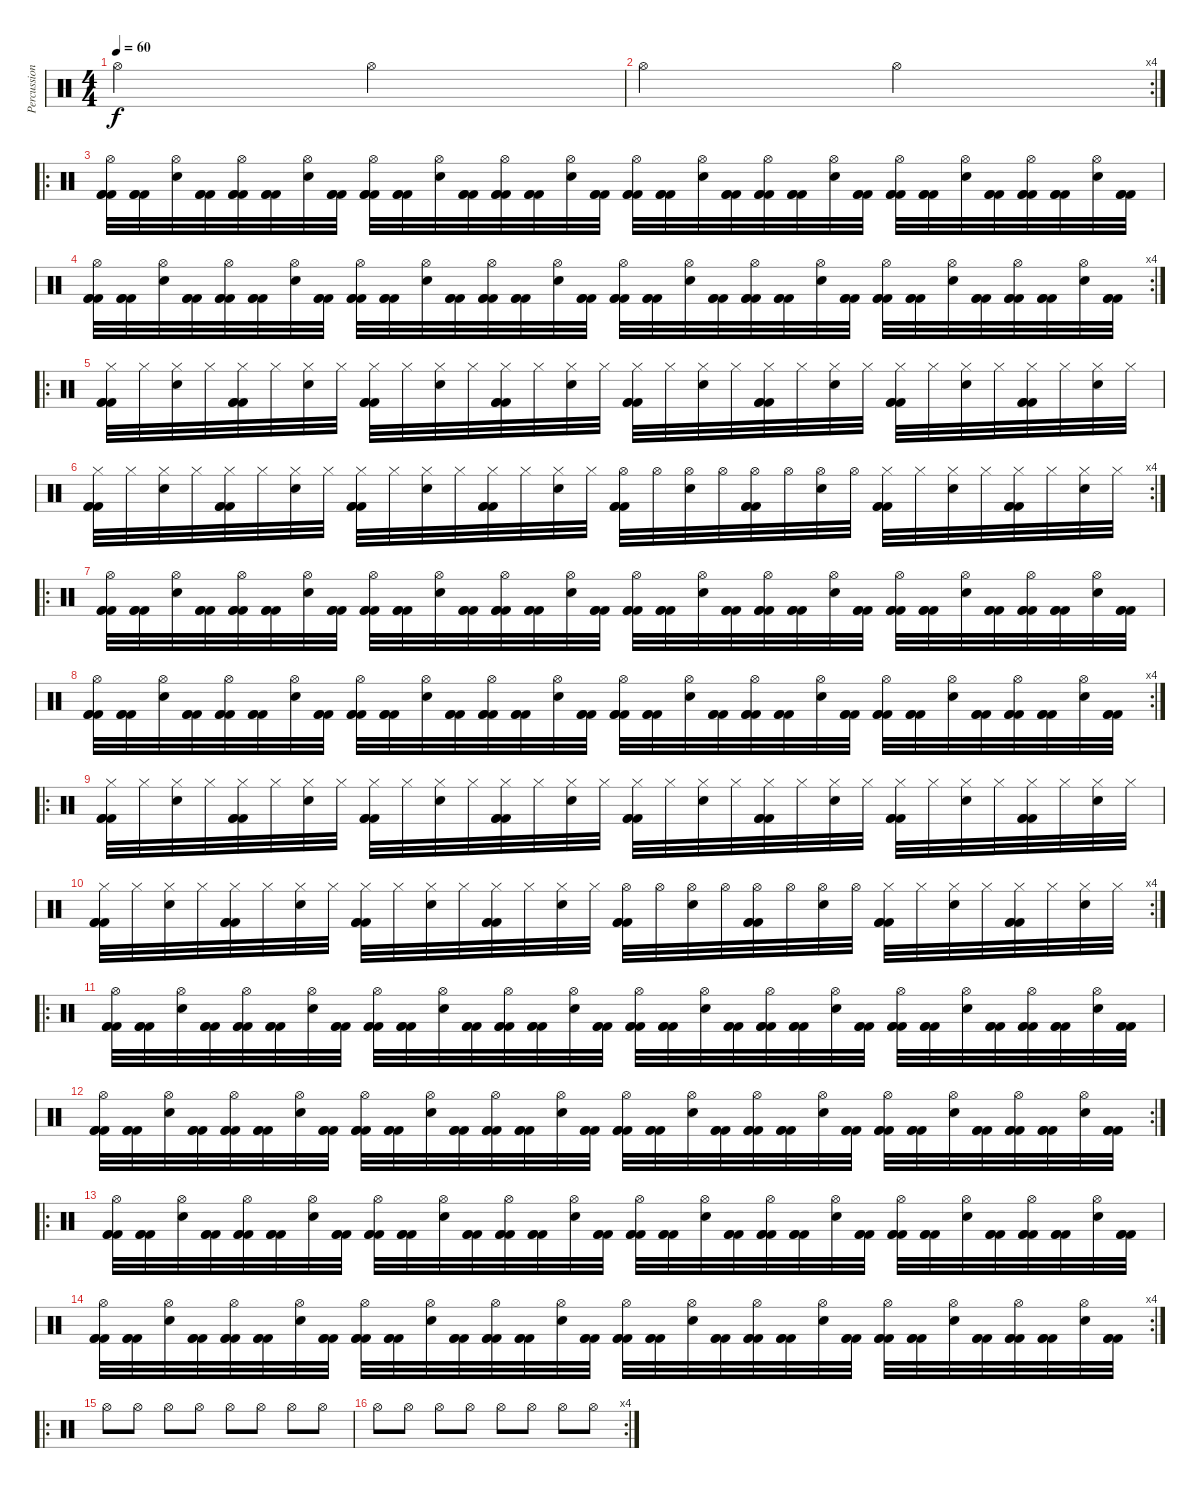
\track ("Percussion" "Percussion") {instrument percussion}
\staff {score}
\articulation defaults
\ts (4 4)
\tempo 60
\clef neutral
\ks c "Hi-Hat (open)".2{dy f} "Hi-Hat (open)".2
|
\rc 4 "Hi-Hat (open)".2 "Hi-Hat (open)".2
|
\ro
("Kick (hit) 2" "Kick (hit) 2" "Kick (hit) 2" "Hi-Hat (open)").32 ("Kick (hit) 2" "Kick (hit) 2" "Kick (hit) 2").32 ("Snare (hit) 2" "Hi-Hat (open)").32 ("Kick (hit) 2" "Kick (hit) 2" "Kick (hit) 2").32 ("Kick (hit) 2" "Kick (hit) 2" "Kick (hit) 2" "Hi-Hat (open)").32 ("Kick (hit) 2" "Kick (hit) 2" "Kick (hit) 2").32 ("Snare (hit) 2" "Hi-Hat (open)").32 ("Kick (hit) 2" "Kick (hit) 2" "Kick (hit) 2").32 ("Kick (hit) 2" "Kick (hit) 2" "Kick (hit) 2" "Hi-Hat (open)").32 ("Kick (hit) 2" "Kick (hit) 2" "Kick (hit) 2").32 ("Snare (hit) 2" "Hi-Hat (open)").32 ("Kick (hit) 2" "Kick (hit) 2" "Kick (hit) 2").32 ("Kick (hit) 2" "Kick (hit) 2" "Kick (hit) 2" "Hi-Hat (open)").32 ("Kick (hit) 2" "Kick (hit) 2" "Kick (hit) 2").32 ("Snare (hit) 2" "Hi-Hat (open)").32 ("Kick (hit) 2" "Kick (hit) 2" "Kick (hit) 2").32 ("Kick (hit) 2" "Kick (hit) 2" "Kick (hit) 2" "Hi-Hat (open)").32 ("Kick (hit) 2" "Kick (hit) 2" "Kick (hit) 2").32 ("Snare (hit) 2" "Hi-Hat (open)").32 ("Kick (hit) 2" "Kick (hit) 2" "Kick (hit) 2").32 ("Kick (hit) 2" "Kick (hit) 2" "Kick (hit) 2" "Hi-Hat (open)").32 ("Kick (hit) 2" "Kick (hit) 2" "Kick (hit) 2").32 ("Snare (hit) 2" "Hi-Hat (open)").32 ("Kick (hit) 2" "Kick (hit) 2" "Kick (hit) 2").32 ("Kick (hit) 2" "Kick (hit) 2" "Kick (hit) 2" "Hi-Hat (open)").32 ("Kick (hit) 2" "Kick (hit) 2" "Kick (hit) 2").32 ("Snare (hit) 2" "Hi-Hat (open)").32 ("Kick (hit) 2" "Kick (hit) 2" "Kick (hit) 2").32 ("Kick (hit) 2" "Kick (hit) 2" "Kick (hit) 2" "Hi-Hat (open)").32 ("Kick (hit) 2" "Kick (hit) 2" "Kick (hit) 2").32 ("Snare (hit) 2" "Hi-Hat (open)").32 ("Kick (hit) 2" "Kick (hit) 2" "Kick (hit) 2").32 |
\rc 4
("Kick (hit) 2" "Kick (hit) 2" "Kick (hit) 2" "Hi-Hat (open)").32 ("Kick (hit) 2" "Kick (hit) 2" "Kick (hit) 2").32 ("Snare (hit) 2" "Hi-Hat (open)").32 ("Kick (hit) 2" "Kick (hit) 2" "Kick (hit) 2").32 ("Kick (hit) 2" "Kick (hit) 2" "Kick (hit) 2" "Hi-Hat (open)").32 ("Kick (hit) 2" "Kick (hit) 2" "Kick (hit) 2").32 ("Snare (hit) 2" "Hi-Hat (open)").32 ("Kick (hit) 2" "Kick (hit) 2" "Kick (hit) 2").32 ("Kick (hit) 2" "Kick (hit) 2" "Kick (hit) 2" "Hi-Hat (open)").32 ("Kick (hit) 2" "Kick (hit) 2" "Kick (hit) 2").32 ("Snare (hit) 2" "Hi-Hat (open)").32 ("Kick (hit) 2" "Kick (hit) 2" "Kick (hit) 2").32 ("Kick (hit) 2" "Kick (hit) 2" "Kick (hit) 2" "Hi-Hat (open)").32 ("Kick (hit) 2" "Kick (hit) 2" "Kick (hit) 2").32 ("Snare (hit) 2" "Hi-Hat (open)").32 ("Kick (hit) 2" "Kick (hit) 2" "Kick (hit) 2").32 ("Kick (hit) 2" "Kick (hit) 2" "Kick (hit) 2" "Hi-Hat (open)").32 ("Kick (hit) 2" "Kick (hit) 2" "Kick (hit) 2").32 ("Snare (hit) 2" "Hi-Hat (open)").32 ("Kick (hit) 2" "Kick (hit) 2" "Kick (hit) 2").32 ("Kick (hit) 2" "Kick (hit) 2" "Kick (hit) 2" "Hi-Hat (open)").32 ("Kick (hit) 2" "Kick (hit) 2" "Kick (hit) 2").32 ("Snare (hit) 2" "Hi-Hat (open)").32 ("Kick (hit) 2" "Kick (hit) 2" "Kick (hit) 2").32 ("Kick (hit) 2" "Kick (hit) 2" "Kick (hit) 2" "Hi-Hat (open)").32 ("Kick (hit) 2" "Kick (hit) 2" "Kick (hit) 2").32 ("Snare (hit) 2" "Hi-Hat (open)").32 ("Kick (hit) 2" "Kick (hit) 2" "Kick (hit) 2").32 ("Kick (hit) 2" "Kick (hit) 2" "Kick (hit) 2" "Hi-Hat (open)").32 ("Kick (hit) 2" "Kick (hit) 2" "Kick (hit) 2").32 ("Snare (hit) 2" "Hi-Hat (open)").32 ("Kick (hit) 2" "Kick (hit) 2" "Kick (hit) 2").32 |
\ro
("Hi-Hat (closed)" "Kick (hit) 2" "Kick (hit) 2" "Kick (hit) 2").32 "Hi-Hat (closed)".32 ("Hi-Hat (closed)" "Snare (hit) 2").32 "Hi-Hat (closed)".32 ("Hi-Hat (closed)" "Kick (hit) 2" "Kick (hit) 2" "Kick (hit) 2").32 "Hi-Hat (closed)".32 ("Hi-Hat (closed)" "Snare (hit) 2").32 "Hi-Hat (closed)".32 ("Hi-Hat (closed)" "Kick (hit) 2" "Kick (hit) 2" "Kick (hit) 2").32 "Hi-Hat (closed)".32 ("Hi-Hat (closed)" "Snare (hit) 2").32 "Hi-Hat (closed)".32 ("Hi-Hat (closed)" "Kick (hit) 2" "Kick (hit) 2" "Kick (hit) 2").32 "Hi-Hat (closed)".32 ("Hi-Hat (closed)" "Snare (hit) 2").32 "Hi-Hat (closed)".32 ("Hi-Hat (closed)" "Kick (hit) 2" "Kick (hit) 2" "Kick (hit) 2").32 "Hi-Hat (closed)".32 ("Hi-Hat (closed)" "Snare (hit) 2").32 "Hi-Hat (closed)".32 ("Hi-Hat (closed)" "Kick (hit) 2" "Kick (hit) 2" "Kick (hit) 2").32 "Hi-Hat (closed)".32 ("Hi-Hat (closed)" "Snare (hit) 2").32 "Hi-Hat (closed)".32 ("Hi-Hat (closed)" "Kick (hit) 2" "Kick (hit) 2" "Kick (hit) 2").32 "Hi-Hat (closed)".32 ("Hi-Hat (closed)" "Snare (hit) 2").32 "Hi-Hat (closed)".32 ("Hi-Hat (closed)" "Kick (hit) 2" "Kick (hit) 2" "Kick (hit) 2").32 "Hi-Hat (closed)".32 ("Hi-Hat (closed)" "Snare (hit) 2").32 "Hi-Hat (closed)".32 |
\rc 4
("Hi-Hat (closed)" "Kick (hit) 2" "Kick (hit) 2" "Kick (hit) 2").32 "Hi-Hat (closed)".32 ("Hi-Hat (closed)" "Snare (hit) 2").32 "Hi-Hat (closed)".32 ("Hi-Hat (closed)" "Kick (hit) 2" "Kick (hit) 2" "Kick (hit) 2").32 "Hi-Hat (closed)".32 ("Hi-Hat (closed)" "Snare (hit) 2").32 "Hi-Hat (closed)".32 ("Hi-Hat (closed)" "Kick (hit) 2" "Kick (hit) 2" "Kick (hit) 2").32 "Hi-Hat (closed)".32 ("Hi-Hat (closed)" "Snare (hit) 2").32 "Hi-Hat (closed)".32 ("Hi-Hat (closed)" "Kick (hit) 2" "Kick (hit) 2" "Kick (hit) 2").32 "Hi-Hat (closed)".32 ("Hi-Hat (closed)" "Snare (hit) 2").32 "Hi-Hat (closed)".32 ("Hi-Hat (open)" "Kick (hit) 2" "Kick (hit) 2" "Kick (hit) 2").32 "Hi-Hat (open)".32 ("Hi-Hat (open)" "Snare (hit) 2").32 "Hi-Hat (open)".32 ("Hi-Hat (open)" "Kick (hit) 2" "Kick (hit) 2" "Kick (hit) 2").32 "Hi-Hat (open)".32 ("Hi-Hat (open)" "Snare (hit) 2").32 "Hi-Hat (open)".32 ("Hi-Hat (closed)" "Kick (hit) 2" "Kick (hit) 2" "Kick (hit) 2").32 "Hi-Hat (closed)".32 ("Hi-Hat (closed)" "Snare (hit) 2").32 "Hi-Hat (closed)".32 ("Hi-Hat (closed)" "Kick (hit) 2" "Kick (hit) 2" "Kick (hit) 2").32 "Hi-Hat (closed)".32 ("Hi-Hat (closed)" "Snare (hit) 2").32 "Hi-Hat (closed)".32 |
\ro
("Kick (hit) 2" "Kick (hit) 2" "Kick (hit) 2" "Hi-Hat (open)").32 ("Kick (hit) 2" "Kick (hit) 2" "Kick (hit) 2").32 ("Snare (hit) 2" "Hi-Hat (open)").32 ("Kick (hit) 2" "Kick (hit) 2" "Kick (hit) 2").32 ("Kick (hit) 2" "Kick (hit) 2" "Kick (hit) 2" "Hi-Hat (open)").32 ("Kick (hit) 2" "Kick (hit) 2" "Kick (hit) 2").32 ("Snare (hit) 2" "Hi-Hat (open)").32 ("Kick (hit) 2" "Kick (hit) 2" "Kick (hit) 2").32 ("Kick (hit) 2" "Kick (hit) 2" "Kick (hit) 2" "Hi-Hat (open)").32 ("Kick (hit) 2" "Kick (hit) 2" "Kick (hit) 2").32 ("Snare (hit) 2" "Hi-Hat (open)").32 ("Kick (hit) 2" "Kick (hit) 2" "Kick (hit) 2").32 ("Kick (hit) 2" "Kick (hit) 2" "Kick (hit) 2" "Hi-Hat (open)").32 ("Kick (hit) 2" "Kick (hit) 2" "Kick (hit) 2").32 ("Snare (hit) 2" "Hi-Hat (open)").32 ("Kick (hit) 2" "Kick (hit) 2" "Kick (hit) 2").32 ("Kick (hit) 2" "Kick (hit) 2" "Kick (hit) 2" "Hi-Hat (open)").32 ("Kick (hit) 2" "Kick (hit) 2" "Kick (hit) 2").32 ("Snare (hit) 2" "Hi-Hat (open)").32 ("Kick (hit) 2" "Kick (hit) 2" "Kick (hit) 2").32 ("Kick (hit) 2" "Kick (hit) 2" "Kick (hit) 2" "Hi-Hat (open)").32 ("Kick (hit) 2" "Kick (hit) 2" "Kick (hit) 2").32 ("Snare (hit) 2" "Hi-Hat (open)").32 ("Kick (hit) 2" "Kick (hit) 2" "Kick (hit) 2").32 ("Kick (hit) 2" "Kick (hit) 2" "Kick (hit) 2" "Hi-Hat (open)").32 ("Kick (hit) 2" "Kick (hit) 2" "Kick (hit) 2").32 ("Snare (hit) 2" "Hi-Hat (open)").32 ("Kick (hit) 2" "Kick (hit) 2" "Kick (hit) 2").32 ("Kick (hit) 2" "Kick (hit) 2" "Kick (hit) 2" "Hi-Hat (open)").32 ("Kick (hit) 2" "Kick (hit) 2" "Kick (hit) 2").32 ("Snare (hit) 2" "Hi-Hat (open)").32 ("Kick (hit) 2" "Kick (hit) 2" "Kick (hit) 2").32 |
\rc 4
("Kick (hit) 2" "Kick (hit) 2" "Kick (hit) 2" "Hi-Hat (open)").32 ("Kick (hit) 2" "Kick (hit) 2" "Kick (hit) 2").32 ("Snare (hit) 2" "Hi-Hat (open)").32 ("Kick (hit) 2" "Kick (hit) 2" "Kick (hit) 2").32 ("Kick (hit) 2" "Kick (hit) 2" "Kick (hit) 2" "Hi-Hat (open)").32 ("Kick (hit) 2" "Kick (hit) 2" "Kick (hit) 2").32 ("Snare (hit) 2" "Hi-Hat (open)").32 ("Kick (hit) 2" "Kick (hit) 2" "Kick (hit) 2").32 ("Kick (hit) 2" "Kick (hit) 2" "Kick (hit) 2" "Hi-Hat (open)").32 ("Kick (hit) 2" "Kick (hit) 2" "Kick (hit) 2").32 ("Snare (hit) 2" "Hi-Hat (open)").32 ("Kick (hit) 2" "Kick (hit) 2" "Kick (hit) 2").32 ("Kick (hit) 2" "Kick (hit) 2" "Kick (hit) 2" "Hi-Hat (open)").32 ("Kick (hit) 2" "Kick (hit) 2" "Kick (hit) 2").32 ("Snare (hit) 2" "Hi-Hat (open)").32 ("Kick (hit) 2" "Kick (hit) 2" "Kick (hit) 2").32 ("Kick (hit) 2" "Kick (hit) 2" "Kick (hit) 2" "Hi-Hat (open)").32 ("Kick (hit) 2" "Kick (hit) 2" "Kick (hit) 2").32 ("Snare (hit) 2" "Hi-Hat (open)").32 ("Kick (hit) 2" "Kick (hit) 2" "Kick (hit) 2").32 ("Kick (hit) 2" "Kick (hit) 2" "Kick (hit) 2" "Hi-Hat (open)").32 ("Kick (hit) 2" "Kick (hit) 2" "Kick (hit) 2").32 ("Snare (hit) 2" "Hi-Hat (open)").32 ("Kick (hit) 2" "Kick (hit) 2" "Kick (hit) 2").32 ("Kick (hit) 2" "Kick (hit) 2" "Kick (hit) 2" "Hi-Hat (open)").32 ("Kick (hit) 2" "Kick (hit) 2" "Kick (hit) 2").32 ("Snare (hit) 2" "Hi-Hat (open)").32 ("Kick (hit) 2" "Kick (hit) 2" "Kick (hit) 2").32 ("Kick (hit) 2" "Kick (hit) 2" "Kick (hit) 2" "Hi-Hat (open)").32 ("Kick (hit) 2" "Kick (hit) 2" "Kick (hit) 2").32 ("Snare (hit) 2" "Hi-Hat (open)").32 ("Kick (hit) 2" "Kick (hit) 2" "Kick (hit) 2").32 |
\ro
("Hi-Hat (closed)" "Kick (hit) 2" "Kick (hit) 2" "Kick (hit) 2").32 "Hi-Hat (closed)".32 ("Hi-Hat (closed)" "Snare (hit) 2").32 "Hi-Hat (closed)".32 ("Hi-Hat (closed)" "Kick (hit) 2" "Kick (hit) 2" "Kick (hit) 2").32 "Hi-Hat (closed)".32 ("Hi-Hat (closed)" "Snare (hit) 2").32 "Hi-Hat (closed)".32 ("Hi-Hat (closed)" "Kick (hit) 2" "Kick (hit) 2" "Kick (hit) 2").32 "Hi-Hat (closed)".32 ("Hi-Hat (closed)" "Snare (hit) 2").32 "Hi-Hat (closed)".32 ("Hi-Hat (closed)" "Kick (hit) 2" "Kick (hit) 2" "Kick (hit) 2").32 "Hi-Hat (closed)".32 ("Hi-Hat (closed)" "Snare (hit) 2").32 "Hi-Hat (closed)".32 ("Hi-Hat (closed)" "Kick (hit) 2" "Kick (hit) 2" "Kick (hit) 2").32 "Hi-Hat (closed)".32 ("Hi-Hat (closed)" "Snare (hit) 2").32 "Hi-Hat (closed)".32 ("Hi-Hat (closed)" "Kick (hit) 2" "Kick (hit) 2" "Kick (hit) 2").32 "Hi-Hat (closed)".32 ("Hi-Hat (closed)" "Snare (hit) 2").32 "Hi-Hat (closed)".32 ("Hi-Hat (closed)" "Kick (hit) 2" "Kick (hit) 2" "Kick (hit) 2").32 "Hi-Hat (closed)".32 ("Hi-Hat (closed)" "Snare (hit) 2").32 "Hi-Hat (closed)".32 ("Hi-Hat (closed)" "Kick (hit) 2" "Kick (hit) 2" "Kick (hit) 2").32 "Hi-Hat (closed)".32 ("Hi-Hat (closed)" "Snare (hit) 2").32 "Hi-Hat (closed)".32 |
\rc 4
("Hi-Hat (closed)" "Kick (hit) 2" "Kick (hit) 2" "Kick (hit) 2").32 "Hi-Hat (closed)".32 ("Hi-Hat (closed)" "Snare (hit) 2").32 "Hi-Hat (closed)".32 ("Hi-Hat (closed)" "Kick (hit) 2" "Kick (hit) 2" "Kick (hit) 2").32 "Hi-Hat (closed)".32 ("Hi-Hat (closed)" "Snare (hit) 2").32 "Hi-Hat (closed)".32 ("Hi-Hat (closed)" "Kick (hit) 2" "Kick (hit) 2" "Kick (hit) 2").32 "Hi-Hat (closed)".32 ("Hi-Hat (closed)" "Snare (hit) 2").32 "Hi-Hat (closed)".32 ("Hi-Hat (closed)" "Kick (hit) 2" "Kick (hit) 2" "Kick (hit) 2").32 "Hi-Hat (closed)".32 ("Hi-Hat (closed)" "Snare (hit) 2").32 "Hi-Hat (closed)".32 ("Hi-Hat (open)" "Kick (hit) 2" "Kick (hit) 2" "Kick (hit) 2").32 "Hi-Hat (open)".32 ("Hi-Hat (open)" "Snare (hit) 2").32 "Hi-Hat (open)".32 ("Hi-Hat (open)" "Kick (hit) 2" "Kick (hit) 2" "Kick (hit) 2").32 "Hi-Hat (open)".32 ("Hi-Hat (open)" "Snare (hit) 2").32 "Hi-Hat (open)".32 ("Hi-Hat (closed)" "Kick (hit) 2" "Kick (hit) 2" "Kick (hit) 2").32 "Hi-Hat (closed)".32 ("Hi-Hat (closed)" "Snare (hit) 2").32 "Hi-Hat (closed)".32 ("Hi-Hat (closed)" "Kick (hit) 2" "Kick (hit) 2" "Kick (hit) 2").32 "Hi-Hat (closed)".32 ("Hi-Hat (closed)" "Snare (hit) 2").32 "Hi-Hat (closed)".32 |
\ro
("Kick (hit) 2" "Kick (hit) 2" "Kick (hit) 2" "Hi-Hat (open)").32 ("Kick (hit) 2" "Kick (hit) 2" "Kick (hit) 2").32 ("Snare (hit) 2" "Hi-Hat (open)").32 ("Kick (hit) 2" "Kick (hit) 2" "Kick (hit) 2").32 ("Kick (hit) 2" "Kick (hit) 2" "Kick (hit) 2" "Hi-Hat (open)").32 ("Kick (hit) 2" "Kick (hit) 2" "Kick (hit) 2").32 ("Snare (hit) 2" "Hi-Hat (open)").32 ("Kick (hit) 2" "Kick (hit) 2" "Kick (hit) 2").32 ("Kick (hit) 2" "Kick (hit) 2" "Kick (hit) 2" "Hi-Hat (open)").32 ("Kick (hit) 2" "Kick (hit) 2" "Kick (hit) 2").32 ("Snare (hit) 2" "Hi-Hat (open)").32 ("Kick (hit) 2" "Kick (hit) 2" "Kick (hit) 2").32 ("Kick (hit) 2" "Kick (hit) 2" "Kick (hit) 2" "Hi-Hat (open)").32 ("Kick (hit) 2" "Kick (hit) 2" "Kick (hit) 2").32 ("Snare (hit) 2" "Hi-Hat (open)").32 ("Kick (hit) 2" "Kick (hit) 2" "Kick (hit) 2").32 ("Kick (hit) 2" "Kick (hit) 2" "Kick (hit) 2" "Hi-Hat (open)").32 ("Kick (hit) 2" "Kick (hit) 2" "Kick (hit) 2").32 ("Snare (hit) 2" "Hi-Hat (open)").32 ("Kick (hit) 2" "Kick (hit) 2" "Kick (hit) 2").32 ("Kick (hit) 2" "Kick (hit) 2" "Kick (hit) 2" "Hi-Hat (open)").32 ("Kick (hit) 2" "Kick (hit) 2" "Kick (hit) 2").32 ("Snare (hit) 2" "Hi-Hat (open)").32 ("Kick (hit) 2" "Kick (hit) 2" "Kick (hit) 2").32 ("Kick (hit) 2" "Kick (hit) 2" "Kick (hit) 2" "Hi-Hat (open)").32 ("Kick (hit) 2" "Kick (hit) 2" "Kick (hit) 2").32 ("Snare (hit) 2" "Hi-Hat (open)").32 ("Kick (hit) 2" "Kick (hit) 2" "Kick (hit) 2").32 ("Kick (hit) 2" "Kick (hit) 2" "Kick (hit) 2" "Hi-Hat (open)").32 ("Kick (hit) 2" "Kick (hit) 2" "Kick (hit) 2").32 ("Snare (hit) 2" "Hi-Hat (open)").32 ("Kick (hit) 2" "Kick (hit) 2" "Kick (hit) 2").32 |
\rc 2
("Kick (hit) 2" "Kick (hit) 2" "Kick (hit) 2" "Hi-Hat (open)").32 ("Kick (hit) 2" "Kick (hit) 2" "Kick (hit) 2").32 ("Snare (hit) 2" "Hi-Hat (open)").32 ("Kick (hit) 2" "Kick (hit) 2" "Kick (hit) 2").32 ("Kick (hit) 2" "Kick (hit) 2" "Kick (hit) 2" "Hi-Hat (open)").32 ("Kick (hit) 2" "Kick (hit) 2" "Kick (hit) 2").32 ("Snare (hit) 2" "Hi-Hat (open)").32 ("Kick (hit) 2" "Kick (hit) 2" "Kick (hit) 2").32 ("Kick (hit) 2" "Kick (hit) 2" "Kick (hit) 2" "Hi-Hat (open)").32 ("Kick (hit) 2" "Kick (hit) 2" "Kick (hit) 2").32 ("Snare (hit) 2" "Hi-Hat (open)").32 ("Kick (hit) 2" "Kick (hit) 2" "Kick (hit) 2").32 ("Kick (hit) 2" "Kick (hit) 2" "Kick (hit) 2" "Hi-Hat (open)").32 ("Kick (hit) 2" "Kick (hit) 2" "Kick (hit) 2").32 ("Snare (hit) 2" "Hi-Hat (open)").32 ("Kick (hit) 2" "Kick (hit) 2" "Kick (hit) 2").32 ("Kick (hit) 2" "Kick (hit) 2" "Kick (hit) 2" "Hi-Hat (open)").32 ("Kick (hit) 2" "Kick (hit) 2" "Kick (hit) 2").32 ("Snare (hit) 2" "Hi-Hat (open)").32 ("Kick (hit) 2" "Kick (hit) 2" "Kick (hit) 2").32 ("Kick (hit) 2" "Kick (hit) 2" "Kick (hit) 2" "Hi-Hat (open)").32 ("Kick (hit) 2" "Kick (hit) 2" "Kick (hit) 2").32 ("Snare (hit) 2" "Hi-Hat (open)").32 ("Kick (hit) 2" "Kick (hit) 2" "Kick (hit) 2").32 ("Kick (hit) 2" "Kick (hit) 2" "Kick (hit) 2" "Hi-Hat (open)").32 ("Kick (hit) 2" "Kick (hit) 2" "Kick (hit) 2").32 ("Snare (hit) 2" "Hi-Hat (open)").32 ("Kick (hit) 2" "Kick (hit) 2" "Kick (hit) 2").32 ("Kick (hit) 2" "Kick (hit) 2" "Kick (hit) 2" "Hi-Hat (open)").32 ("Kick (hit) 2" "Kick (hit) 2" "Kick (hit) 2").32 ("Snare (hit) 2" "Hi-Hat (open)").32 ("Kick (hit) 2" "Kick (hit) 2" "Kick (hit) 2").32 |
\ro
("Kick (hit) 2" "Kick (hit) 2" "Kick (hit) 2" "Hi-Hat (open)").32 ("Kick (hit) 2" "Kick (hit) 2" "Kick (hit) 2").32 ("Snare (hit) 2" "Hi-Hat (open)").32 ("Kick (hit) 2" "Kick (hit) 2" "Kick (hit) 2").32 ("Kick (hit) 2" "Kick (hit) 2" "Kick (hit) 2" "Hi-Hat (open)").32 ("Kick (hit) 2" "Kick (hit) 2" "Kick (hit) 2").32 ("Snare (hit) 2" "Hi-Hat (open)").32 ("Kick (hit) 2" "Kick (hit) 2" "Kick (hit) 2").32 ("Kick (hit) 2" "Kick (hit) 2" "Kick (hit) 2" "Hi-Hat (open)").32 ("Kick (hit) 2" "Kick (hit) 2" "Kick (hit) 2").32 ("Snare (hit) 2" "Hi-Hat (open)").32 ("Kick (hit) 2" "Kick (hit) 2" "Kick (hit) 2").32 ("Kick (hit) 2" "Kick (hit) 2" "Kick (hit) 2" "Hi-Hat (open)").32 ("Kick (hit) 2" "Kick (hit) 2" "Kick (hit) 2").32 ("Snare (hit) 2" "Hi-Hat (open)").32 ("Kick (hit) 2" "Kick (hit) 2" "Kick (hit) 2").32 ("Kick (hit) 2" "Kick (hit) 2" "Kick (hit) 2" "Hi-Hat (open)").32 ("Kick (hit) 2" "Kick (hit) 2" "Kick (hit) 2").32 ("Snare (hit) 2" "Hi-Hat (open)").32 ("Kick (hit) 2" "Kick (hit) 2" "Kick (hit) 2").32 ("Kick (hit) 2" "Kick (hit) 2" "Kick (hit) 2" "Hi-Hat (open)").32 ("Kick (hit) 2" "Kick (hit) 2" "Kick (hit) 2").32 ("Snare (hit) 2" "Hi-Hat (open)").32 ("Kick (hit) 2" "Kick (hit) 2" "Kick (hit) 2").32 ("Kick (hit) 2" "Kick (hit) 2" "Kick (hit) 2" "Hi-Hat (open)").32 ("Kick (hit) 2" "Kick (hit) 2" "Kick (hit) 2").32 ("Snare (hit) 2" "Hi-Hat (open)").32 ("Kick (hit) 2" "Kick (hit) 2" "Kick (hit) 2").32 ("Kick (hit) 2" "Kick (hit) 2" "Kick (hit) 2" "Hi-Hat (open)").32 ("Kick (hit) 2" "Kick (hit) 2" "Kick (hit) 2").32 ("Snare (hit) 2" "Hi-Hat (open)").32 ("Kick (hit) 2" "Kick (hit) 2" "Kick (hit) 2").32 |
\rc 4
("Kick (hit) 2" "Kick (hit) 2" "Kick (hit) 2" "Hi-Hat (open)").32 ("Kick (hit) 2" "Kick (hit) 2" "Kick (hit) 2").32 ("Snare (hit) 2" "Hi-Hat (open)").32 ("Kick (hit) 2" "Kick (hit) 2" "Kick (hit) 2").32 ("Kick (hit) 2" "Kick (hit) 2" "Kick (hit) 2" "Hi-Hat (open)").32 ("Kick (hit) 2" "Kick (hit) 2" "Kick (hit) 2").32 ("Snare (hit) 2" "Hi-Hat (open)").32 ("Kick (hit) 2" "Kick (hit) 2" "Kick (hit) 2").32 ("Kick (hit) 2" "Kick (hit) 2" "Kick (hit) 2" "Hi-Hat (open)").32 ("Kick (hit) 2" "Kick (hit) 2" "Kick (hit) 2").32 ("Snare (hit) 2" "Hi-Hat (open)").32 ("Kick (hit) 2" "Kick (hit) 2" "Kick (hit) 2").32 ("Kick (hit) 2" "Kick (hit) 2" "Kick (hit) 2" "Hi-Hat (open)").32 ("Kick (hit) 2" "Kick (hit) 2" "Kick (hit) 2").32 ("Snare (hit) 2" "Hi-Hat (open)").32 ("Kick (hit) 2" "Kick (hit) 2" "Kick (hit) 2").32 ("Kick (hit) 2" "Kick (hit) 2" "Kick (hit) 2" "Hi-Hat (open)").32 ("Kick (hit) 2" "Kick (hit) 2" "Kick (hit) 2").32 ("Snare (hit) 2" "Hi-Hat (open)").32 ("Kick (hit) 2" "Kick (hit) 2" "Kick (hit) 2").32 ("Kick (hit) 2" "Kick (hit) 2" "Kick (hit) 2" "Hi-Hat (open)").32 ("Kick (hit) 2" "Kick (hit) 2" "Kick (hit) 2").32 ("Snare (hit) 2" "Hi-Hat (open)").32 ("Kick (hit) 2" "Kick (hit) 2" "Kick (hit) 2").32 ("Kick (hit) 2" "Kick (hit) 2" "Kick (hit) 2" "Hi-Hat (open)").32 ("Kick (hit) 2" "Kick (hit) 2" "Kick (hit) 2").32 ("Snare (hit) 2" "Hi-Hat (open)").32 ("Kick (hit) 2" "Kick (hit) 2" "Kick (hit) 2").32 ("Kick (hit) 2" "Kick (hit) 2" "Kick (hit) 2" "Hi-Hat (open)").32 ("Kick (hit) 2" "Kick (hit) 2" "Kick (hit) 2").32 ("Snare (hit) 2" "Hi-Hat (open)").32 ("Kick (hit) 2" "Kick (hit) 2" "Kick (hit) 2").32 |
\ro "Hi-Hat (open)".8 "Hi-Hat (open)".8 "Hi-Hat (open)".8 "Hi-Hat (open)".8 "Hi-Hat (open)".8 "Hi-Hat (open)".8 "Hi-Hat (open)".8 "Hi-Hat (open)".8
|
\rc 4 "Hi-Hat (open)".8 "Hi-Hat (open)".8 "Hi-Hat (open)".8 "Hi-Hat (open)".8 "Hi-Hat (open)".8 "Hi-Hat (open)".8 "Hi-Hat (open)".8 "Hi-Hat (open)".8
